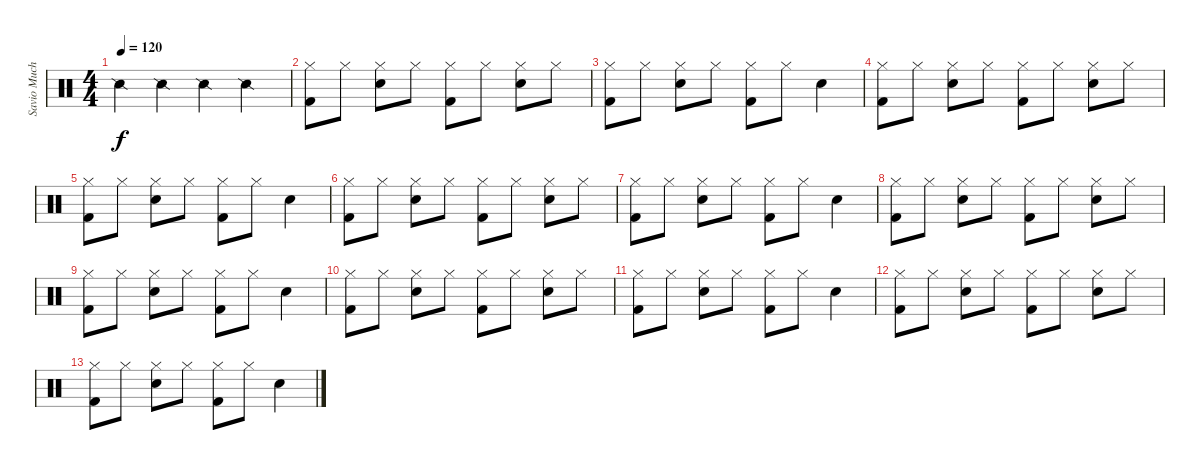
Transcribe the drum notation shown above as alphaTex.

\track ("Savio Muchacho (Drums)" "Savio Much") {instrument percussion}
\staff {score}
\articulation defaults
\ts (4 4)
\tempo 120
\clef neutral
\ks c "Snare (side stick) 2".4{dy f} "Snare (side stick) 2".4 "Snare (side stick) 2".4 "Snare (side stick) 2".4
|
("Hi-Hat (closed)" "Kick (hit) 2").8 "Hi-Hat (closed)".8 ("Hi-Hat (closed)" "Electric Snare (hit)").8 "Hi-Hat (closed)".8 ("Hi-Hat (closed)" "Kick (hit) 2").8 "Hi-Hat (closed)".8 ("Hi-Hat (closed)" "Electric Snare (hit)").8 "Hi-Hat (closed)".8 |
("Hi-Hat (closed)" "Kick (hit) 2").8 "Hi-Hat (closed)".8 ("Hi-Hat (closed)" "Electric Snare (hit)").8 "Hi-Hat (closed)".8 ("Hi-Hat (closed)" "Kick (hit) 2").8 "Hi-Hat (closed)".8 "Electric Snare (hit)".4 |
("Hi-Hat (closed)" "Kick (hit) 2").8 "Hi-Hat (closed)".8 ("Hi-Hat (closed)" "Electric Snare (hit)").8 "Hi-Hat (closed)".8 ("Hi-Hat (closed)" "Kick (hit) 2").8 "Hi-Hat (closed)".8 ("Hi-Hat (closed)" "Electric Snare (hit)").8 "Hi-Hat (closed)".8 |
("Hi-Hat (closed)" "Kick (hit) 2").8 "Hi-Hat (closed)".8 ("Hi-Hat (closed)" "Electric Snare (hit)").8 "Hi-Hat (closed)".8 ("Hi-Hat (closed)" "Kick (hit) 2").8 "Hi-Hat (closed)".8 "Electric Snare (hit)".4 |
("Hi-Hat (closed)" "Kick (hit) 2").8 "Hi-Hat (closed)".8 ("Hi-Hat (closed)" "Electric Snare (hit)").8 "Hi-Hat (closed)".8 ("Hi-Hat (closed)" "Kick (hit) 2").8 "Hi-Hat (closed)".8 ("Hi-Hat (closed)" "Electric Snare (hit)").8 "Hi-Hat (closed)".8 |
("Hi-Hat (closed)" "Kick (hit) 2").8 "Hi-Hat (closed)".8 ("Hi-Hat (closed)" "Electric Snare (hit)").8 "Hi-Hat (closed)".8 ("Hi-Hat (closed)" "Kick (hit) 2").8 "Hi-Hat (closed)".8 "Electric Snare (hit)".4 |
("Hi-Hat (closed)" "Kick (hit) 2").8 "Hi-Hat (closed)".8 ("Hi-Hat (closed)" "Electric Snare (hit)").8 "Hi-Hat (closed)".8 ("Hi-Hat (closed)" "Kick (hit) 2").8 "Hi-Hat (closed)".8 ("Hi-Hat (closed)" "Electric Snare (hit)").8 "Hi-Hat (closed)".8 |
("Hi-Hat (closed)" "Kick (hit) 2").8 "Hi-Hat (closed)".8 ("Hi-Hat (closed)" "Electric Snare (hit)").8 "Hi-Hat (closed)".8 ("Hi-Hat (closed)" "Kick (hit) 2").8 "Hi-Hat (closed)".8 "Electric Snare (hit)".4 |
("Hi-Hat (closed)" "Kick (hit) 2").8 "Hi-Hat (closed)".8 ("Hi-Hat (closed)" "Electric Snare (hit)").8 "Hi-Hat (closed)".8 ("Hi-Hat (closed)" "Kick (hit) 2").8 "Hi-Hat (closed)".8 ("Hi-Hat (closed)" "Electric Snare (hit)").8 "Hi-Hat (closed)".8 |
("Hi-Hat (closed)" "Kick (hit) 2").8 "Hi-Hat (closed)".8 ("Hi-Hat (closed)" "Electric Snare (hit)").8 "Hi-Hat (closed)".8 ("Hi-Hat (closed)" "Kick (hit) 2").8 "Hi-Hat (closed)".8 "Electric Snare (hit)".4 |
("Hi-Hat (closed)" "Kick (hit) 2").8 "Hi-Hat (closed)".8 ("Hi-Hat (closed)" "Electric Snare (hit)").8 "Hi-Hat (closed)".8 ("Hi-Hat (closed)" "Kick (hit) 2").8 "Hi-Hat (closed)".8 ("Hi-Hat (closed)" "Electric Snare (hit)").8 "Hi-Hat (closed)".8 |
("Hi-Hat (closed)" "Kick (hit) 2").8 "Hi-Hat (closed)".8 ("Hi-Hat (closed)" "Electric Snare (hit)").8 "Hi-Hat (closed)".8 ("Hi-Hat (closed)" "Kick (hit) 2").8 "Hi-Hat (closed)".8 "Electric Snare (hit)".4
